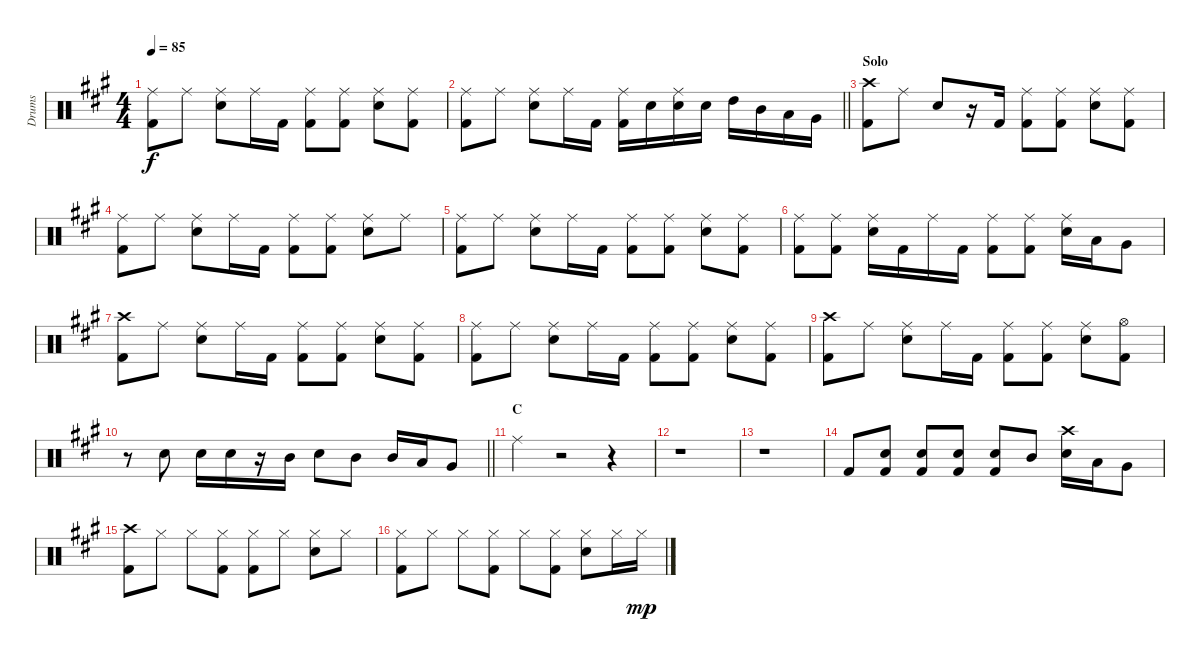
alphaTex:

\track ("Drums" "Drums") {instrument percussion}
\staff {score}
\articulation defaults
\ts (4 4)
\tempo 85
\clef neutral
\ks a
("Ride (middle)" "Kick (hit) 2").8{dy f} "Ride (middle)".8 ("Ride (middle)" "Electric Snare (hit)").8 "Ride (middle)".16 "Kick (hit) 2".16 ("Ride (middle)" "Kick (hit) 2").8 ("Ride (middle)" "Kick (hit) 2").8 ("Ride (middle)" "Electric Snare (hit)").8 ("Ride (middle)" "Kick (hit) 2").8 |
\barLineRight lightlight
("Ride (middle)" "Kick (hit) 2").8 "Ride (middle)".8 ("Ride (middle)" "Electric Snare (hit)").8 "Ride (middle)".16 "Kick (hit) 2".16 ("Ride (middle)" "Kick (hit) 2").16 "Electric Snare (hit)".16 ("Ride (middle)" "Electric Snare (hit)").16 "Electric Snare (hit)".16 "High Tom (hit)".16 "Mid Tom (hit)".16 "Low Tom (hit)".16 "Very Low Tom (hit)".16 |
\section ("" "Solo")
("Crash high (hit)" "Kick (hit) 2").8 "Ride (middle)".8 "Electric Snare (hit)".8 r.16 "Kick (hit) 2".16 ("Ride (middle)" "Kick (hit) 2").8 ("Ride (middle)" "Kick (hit) 2").8 ("Ride (middle)" "Electric Snare (hit)").8 ("Ride (middle)" "Kick (hit) 2").8 |
("Ride (middle)" "Kick (hit) 2").8 "Ride (middle)".8 ("Ride (middle)" "Electric Snare (hit)").8 "Ride (middle)".16 "Kick (hit) 2".16 ("Ride (middle)" "Kick (hit) 2").8 ("Ride (middle)" "Kick (hit) 2").8 ("Ride (middle)" "Electric Snare (hit)").8 "Ride (middle)".8 |
("Ride (middle)" "Kick (hit) 2").8 "Ride (middle)".8 ("Ride (middle)" "Electric Snare (hit)").8 "Ride (middle)".16 "Kick (hit) 2".16 ("Ride (middle)" "Kick (hit) 2").8 ("Ride (middle)" "Kick (hit) 2").8 ("Ride (middle)" "Electric Snare (hit)").8 ("Ride (middle)" "Kick (hit) 2").8 |
("Ride (middle)" "Kick (hit) 2").8 ("Ride (middle)" "Kick (hit) 2").8 ("Ride (middle)" "Electric Snare (hit)").16 "Kick (hit) 2".16 "Ride (middle)".16 "Kick (hit) 2".16 ("Ride (middle)" "Kick (hit) 2").8 ("Ride (middle)" "Kick (hit) 2").8 ("Ride (middle)" "Electric Snare (hit)").16 "Low Tom (hit)".16 "Very Low Tom (hit)".8 |
("Crash high (hit)" "Kick (hit) 2").8 "Ride (middle)".8 ("Ride (middle)" "Electric Snare (hit)").8 "Ride (middle)".16 "Kick (hit) 2".16 ("Ride (middle)" "Kick (hit) 2").8 ("Ride (middle)" "Kick (hit) 2").8 ("Ride (middle)" "Electric Snare (hit)").8 ("Ride (middle)" "Kick (hit) 2").8 |
("Ride (middle)" "Kick (hit) 2").8 "Ride (middle)".8 ("Ride (middle)" "Electric Snare (hit)").8 "Ride (middle)".16 "Kick (hit) 2".16 ("Ride (middle)" "Kick (hit) 2").8 ("Ride (middle)" "Kick (hit) 2").8 ("Ride (middle)" "Electric Snare (hit)").8 ("Ride (middle)" "Kick (hit) 2").8 |
("Crash high (hit)" "Kick (hit) 2").8 "Ride (middle)".8 ("Ride (middle)" "Electric Snare (hit)").8 "Ride (middle)".16 "Kick (hit) 2".16 ("Ride (middle)" "Kick (hit) 2").8 ("Ride (middle)" "Kick (hit) 2").8 ("Ride (middle)" "Electric Snare (hit)").8 ("Hi-Hat (open)" "Kick (hit) 2").8 |
\barLineRight lightlight
r.8 "Electric Snare (hit)".8 "Electric Snare (hit)".16 "Electric Snare (hit)".16 r.16 "Mid Tom (hit)".16 "Electric Snare (hit)".8 "Mid Tom (hit)".8 "Mid Tom (hit)".16 "Low Tom (hit)".16 "Very Low Tom (hit)".8 |
\section ("" "C")
"Ride (middle)".4 r.2 r.4 |
r.1 |
r.1 |
"Kick (hit) 2".8 ("Electric Snare (hit)" "Kick (hit) 2").8 ("Electric Snare (hit)" "Kick (hit) 2").8 ("Electric Snare (hit)" "Kick (hit) 2").8 ("Electric Snare (hit)" "Kick (hit) 2").8 "Mid Tom (hit)".8 ("Crash high (hit)" "Electric Snare (hit)").16 "Low Tom (hit)".16 "Very Low Tom (hit)".8 |
("Crash high (hit)" "Kick (hit) 2").8 "Hi-Hat (closed)".8 "Hi-Hat (closed)".8 ("Hi-Hat (closed)" "Kick (hit) 2").8 ("Hi-Hat (closed)" "Kick (hit) 2").8 "Hi-Hat (closed)".8 ("Hi-Hat (closed)" "Electric Snare (hit)").8 "Hi-Hat (closed)".8 |
("Hi-Hat (closed)" "Kick (hit) 2").8 "Hi-Hat (closed)".8 "Hi-Hat (closed)".8 ("Hi-Hat (closed)" "Kick (hit) 2").8 "Hi-Hat (closed)".8 ("Hi-Hat (closed)" "Kick (hit) 2").8 ("Hi-Hat (closed)" "Electric Snare (hit)").8 "Hi-Hat (closed)".16 "Hi-Hat (closed)".16{dy mp}
